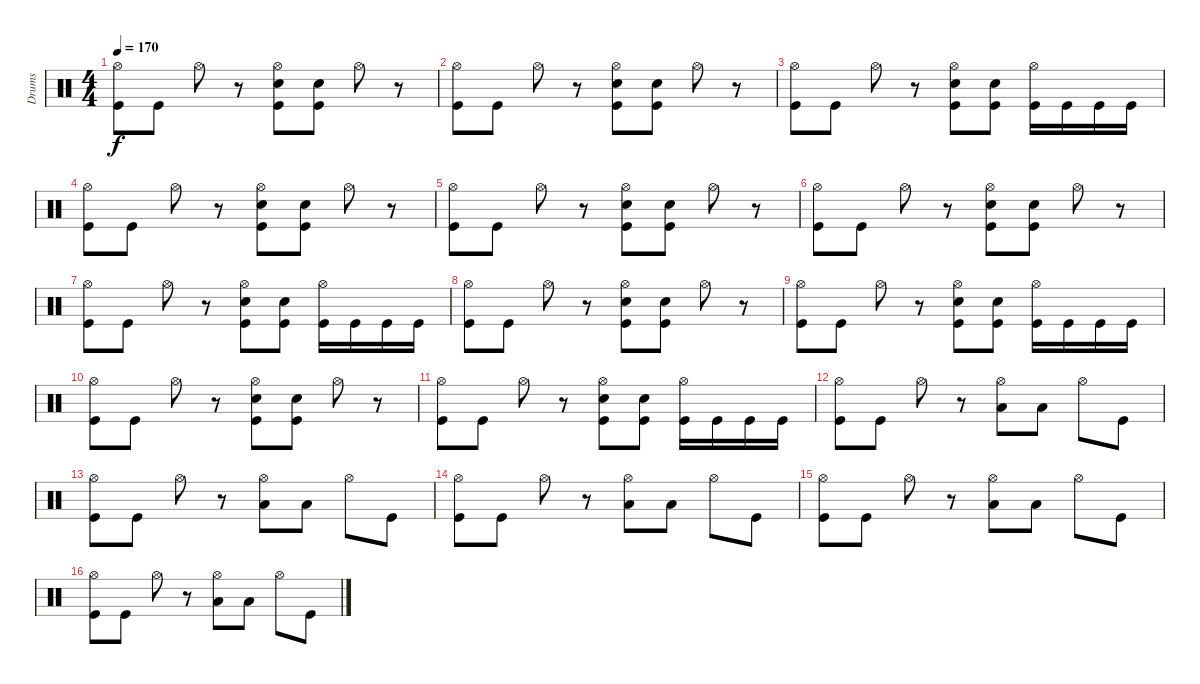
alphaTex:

\track ("Drums" "Drums") {instrument percussion}
\staff {score}
\articulation defaults
\ts (4 4)
\tempo 170
\clef neutral
\ks c
("Hi-Hat (open)" "Kick (hit)").8{dy f} "Kick (hit)".8 "Hi-Hat (open)".8 r.8 ("Hi-Hat (open)" "Electric Snare (hit)" "Kick (hit)").8 ("Electric Snare (hit)" "Kick (hit)").8 "Hi-Hat (open)".8 r.8 |
("Hi-Hat (open)" "Kick (hit)").8 "Kick (hit)".8 "Hi-Hat (open)".8 r.8 ("Hi-Hat (open)" "Electric Snare (hit)" "Kick (hit)").8 ("Electric Snare (hit)" "Kick (hit)").8 "Hi-Hat (open)".8 r.8 |
("Hi-Hat (open)" "Kick (hit)").8 "Kick (hit)".8 "Hi-Hat (open)".8 r.8 ("Hi-Hat (open)" "Electric Snare (hit)" "Kick (hit)").8 ("Electric Snare (hit)" "Kick (hit)").8 ("Hi-Hat (open)" "Kick (hit)").16 "Kick (hit)".16 "Kick (hit)".16 "Kick (hit)".16 |
("Hi-Hat (open)" "Kick (hit)").8 "Kick (hit)".8 "Hi-Hat (open)".8 r.8 ("Hi-Hat (open)" "Electric Snare (hit)" "Kick (hit)").8 ("Electric Snare (hit)" "Kick (hit)").8 "Hi-Hat (open)".8 r.8 |
("Hi-Hat (open)" "Kick (hit)").8 "Kick (hit)".8 "Hi-Hat (open)".8 r.8 ("Hi-Hat (open)" "Electric Snare (hit)" "Kick (hit)").8 ("Electric Snare (hit)" "Kick (hit)").8 "Hi-Hat (open)".8 r.8 |
("Hi-Hat (open)" "Kick (hit)").8 "Kick (hit)".8 "Hi-Hat (open)".8 r.8 ("Hi-Hat (open)" "Electric Snare (hit)" "Kick (hit)").8 ("Electric Snare (hit)" "Kick (hit)").8 "Hi-Hat (open)".8 r.8 |
("Hi-Hat (open)" "Kick (hit)").8 "Kick (hit)".8 "Hi-Hat (open)".8 r.8 ("Hi-Hat (open)" "Electric Snare (hit)" "Kick (hit)").8 ("Electric Snare (hit)" "Kick (hit)").8 ("Hi-Hat (open)" "Kick (hit)").16 "Kick (hit)".16 "Kick (hit)".16 "Kick (hit)".16 |
("Hi-Hat (open)" "Kick (hit)").8 "Kick (hit)".8 "Hi-Hat (open)".8 r.8 ("Hi-Hat (open)" "Electric Snare (hit)" "Kick (hit)").8 ("Electric Snare (hit)" "Kick (hit)").8 "Hi-Hat (open)".8 r.8 |
("Hi-Hat (open)" "Kick (hit)").8 "Kick (hit)".8 "Hi-Hat (open)".8 r.8 ("Hi-Hat (open)" "Electric Snare (hit)" "Kick (hit)").8 ("Electric Snare (hit)" "Kick (hit)").8 ("Hi-Hat (open)" "Kick (hit)").16 "Kick (hit)".16 "Kick (hit)".16 "Kick (hit)".16 |
("Hi-Hat (open)" "Kick (hit)").8 "Kick (hit)".8 "Hi-Hat (open)".8 r.8 ("Hi-Hat (open)" "Electric Snare (hit)" "Kick (hit)").8 ("Electric Snare (hit)" "Kick (hit)").8 "Hi-Hat (open)".8 r.8 |
("Hi-Hat (open)" "Kick (hit)").8 "Kick (hit)".8 "Hi-Hat (open)".8 r.8 ("Hi-Hat (open)" "Electric Snare (hit)" "Kick (hit)").8 ("Electric Snare (hit)" "Kick (hit)").8 ("Hi-Hat (open)" "Kick (hit)").16 "Kick (hit)".16 "Kick (hit)".16 "Kick (hit)".16 |
("Hi-Hat (open)" "Kick (hit)").8 "Kick (hit)".8 "Hi-Hat (open)".8 r.8 ("Hi-Hat (open)" "Low Floor Tom (hit)").8 "Low Floor Tom (hit)".8 "Hi-Hat (open)".8 "Kick (hit)".8 |
("Hi-Hat (open)" "Kick (hit)").8 "Kick (hit)".8 "Hi-Hat (open)".8 r.8 ("Hi-Hat (open)" "Low Floor Tom (hit)").8 "Low Floor Tom (hit)".8 "Hi-Hat (open)".8 "Kick (hit)".8 |
("Hi-Hat (open)" "Kick (hit)").8 "Kick (hit)".8 "Hi-Hat (open)".8 r.8 ("Hi-Hat (open)" "Low Floor Tom (hit)").8 "Low Floor Tom (hit)".8 "Hi-Hat (open)".8 "Kick (hit)".8 |
("Hi-Hat (open)" "Kick (hit)").8 "Kick (hit)".8 "Hi-Hat (open)".8 r.8 ("Hi-Hat (open)" "Low Floor Tom (hit)").8 "Low Floor Tom (hit)".8 "Hi-Hat (open)".8 "Kick (hit)".8 |
("Hi-Hat (open)" "Kick (hit)").8 "Kick (hit)".8 "Hi-Hat (open)".8 r.8 ("Hi-Hat (open)" "Low Floor Tom (hit)").8 "Low Floor Tom (hit)".8 "Hi-Hat (open)".8 "Kick (hit)".8
